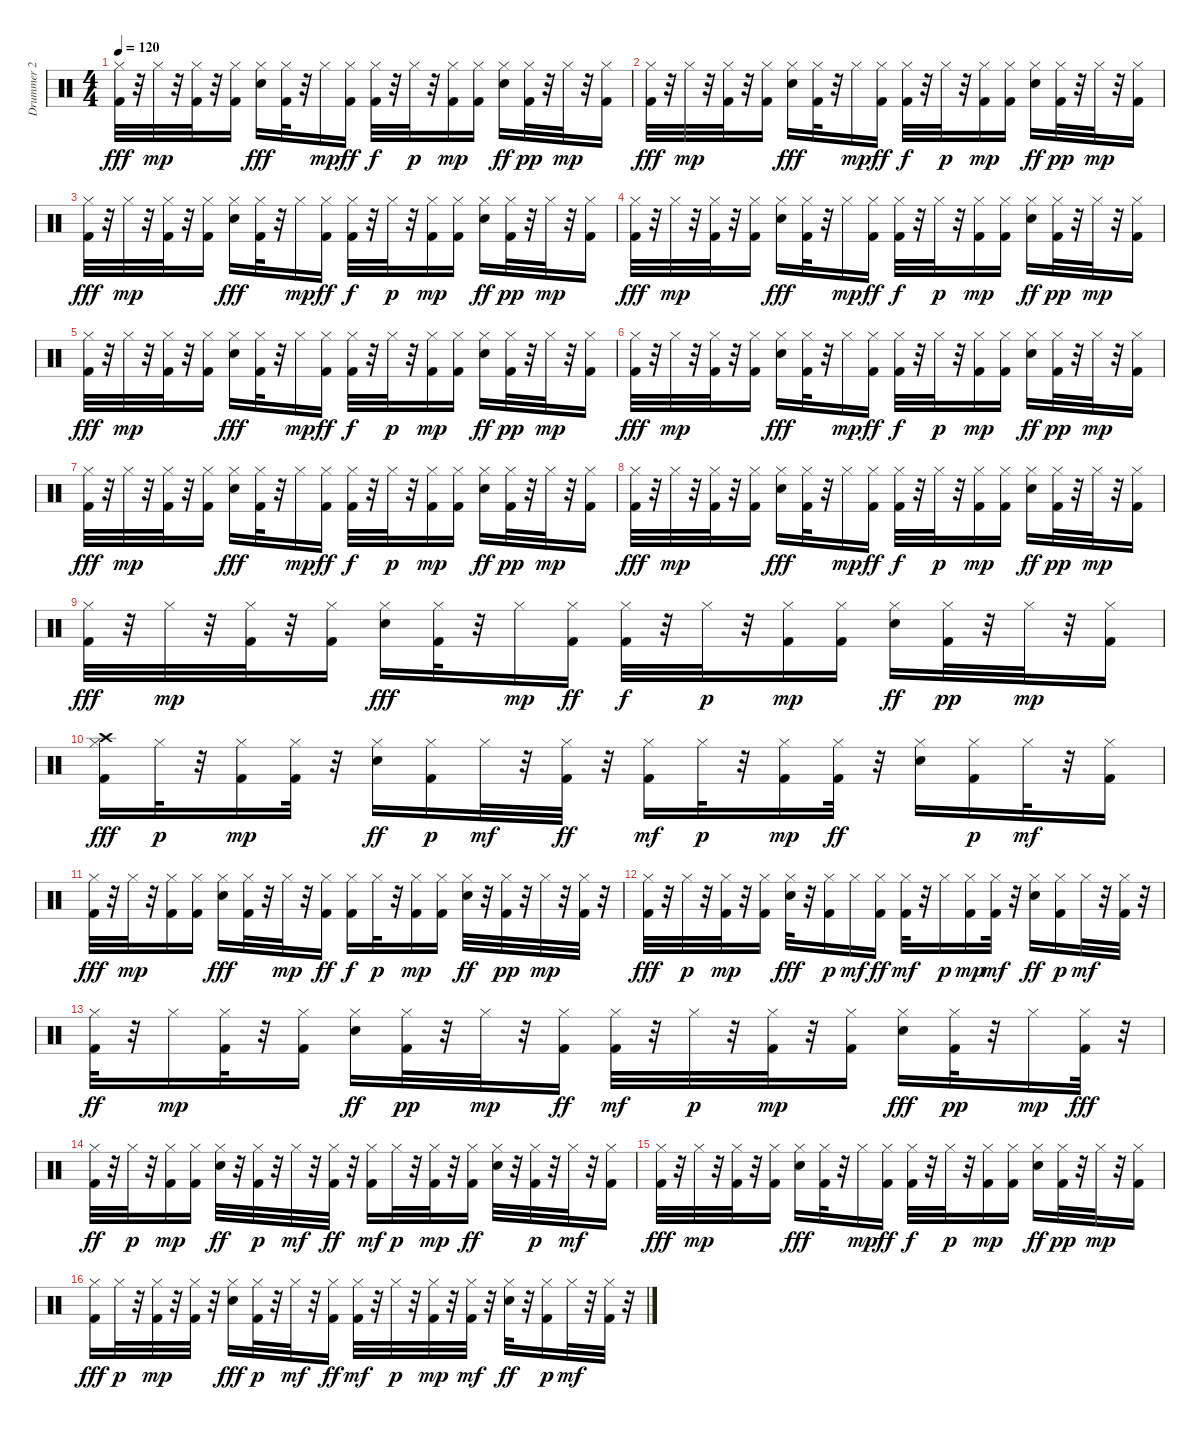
\track ("Drummer 2" "Drummer 2") {instrument percussion}
\staff {score}
\articulation defaults
\ts (4 4)
\tempo 120
\clef neutral
\ks c
("Hi-Hat (closed)" "Kick (hit) 2").32{dy fff} r.32 "Hi-Hat (closed)".32{dy mp} r.32 ("Kick (hit) 2" "Hi-Hat (closed)").32 r.32 ("Kick (hit) 2" "Hi-Hat (closed)").16 ("Hi-Hat (closed)" "Snare (hit) 2").16{dy fff} ("Hi-Hat (closed)" "Kick (hit) 2").32 r.32 "Hi-Hat (closed)".16{dy mp} ("Kick (hit) 2" "Hi-Hat (closed)").16{dy ff} ("Hi-Hat (closed)" "Kick (hit) 2").32{dy f} r.32 "Hi-Hat (closed)".32{dy p} r.32 ("Kick (hit) 2" "Hi-Hat (closed)").16{dy mp} ("Kick (hit) 2" "Hi-Hat (closed)").16 ("Hi-Hat (closed)" "Snare (hit) 2").16{dy ff} ("Kick (hit) 2" "Hi-Hat (closed)").32{dy pp} r.32 "Hi-Hat (closed)".32{dy mp} r.32 ("Kick (hit) 2" "Hi-Hat (closed)").16 |
("Hi-Hat (closed)" "Kick (hit) 2").32{dy fff} r.32 "Hi-Hat (closed)".32{dy mp} r.32 ("Kick (hit) 2" "Hi-Hat (closed)").32 r.32 ("Kick (hit) 2" "Hi-Hat (closed)").16 ("Hi-Hat (closed)" "Snare (hit) 2").16{dy fff} ("Hi-Hat (closed)" "Kick (hit) 2").32 r.32 "Hi-Hat (closed)".16{dy mp} ("Kick (hit) 2" "Hi-Hat (closed)").16{dy ff} ("Hi-Hat (closed)" "Kick (hit) 2").32{dy f} r.32 "Hi-Hat (closed)".32{dy p} r.32 ("Kick (hit) 2" "Hi-Hat (closed)").16{dy mp} ("Kick (hit) 2" "Hi-Hat (closed)").16 ("Hi-Hat (closed)" "Snare (hit) 2").16{dy ff} ("Kick (hit) 2" "Hi-Hat (closed)").32{dy pp} r.32 "Hi-Hat (closed)".32{dy mp} r.32 ("Kick (hit) 2" "Hi-Hat (closed)").16 |
("Hi-Hat (closed)" "Kick (hit) 2").32{dy fff} r.32 "Hi-Hat (closed)".32{dy mp} r.32 ("Kick (hit) 2" "Hi-Hat (closed)").32 r.32 ("Kick (hit) 2" "Hi-Hat (closed)").16 ("Hi-Hat (closed)" "Snare (hit) 2").16{dy fff} ("Hi-Hat (closed)" "Kick (hit) 2").32 r.32 "Hi-Hat (closed)".16{dy mp} ("Kick (hit) 2" "Hi-Hat (closed)").16{dy ff} ("Hi-Hat (closed)" "Kick (hit) 2").32{dy f} r.32 "Hi-Hat (closed)".32{dy p} r.32 ("Kick (hit) 2" "Hi-Hat (closed)").16{dy mp} ("Kick (hit) 2" "Hi-Hat (closed)").16 ("Hi-Hat (closed)" "Snare (hit) 2").16{dy ff} ("Kick (hit) 2" "Hi-Hat (closed)").32{dy pp} r.32 "Hi-Hat (closed)".32{dy mp} r.32 ("Kick (hit) 2" "Hi-Hat (closed)").16 |
("Hi-Hat (closed)" "Kick (hit) 2").32{dy fff} r.32 "Hi-Hat (closed)".32{dy mp} r.32 ("Kick (hit) 2" "Hi-Hat (closed)").32 r.32 ("Kick (hit) 2" "Hi-Hat (closed)").16 ("Hi-Hat (closed)" "Snare (hit) 2").16{dy fff} ("Hi-Hat (closed)" "Kick (hit) 2").32 r.32 "Hi-Hat (closed)".16{dy mp} ("Kick (hit) 2" "Hi-Hat (closed)").16{dy ff} ("Hi-Hat (closed)" "Kick (hit) 2").32{dy f} r.32 "Hi-Hat (closed)".32{dy p} r.32 ("Kick (hit) 2" "Hi-Hat (closed)").16{dy mp} ("Kick (hit) 2" "Hi-Hat (closed)").16 ("Hi-Hat (closed)" "Snare (hit) 2").16{dy ff} ("Kick (hit) 2" "Hi-Hat (closed)").32{dy pp} r.32 "Hi-Hat (closed)".32{dy mp} r.32 ("Kick (hit) 2" "Hi-Hat (closed)").16 |
("Hi-Hat (closed)" "Kick (hit) 2").32{dy fff} r.32 "Hi-Hat (closed)".32{dy mp} r.32 ("Kick (hit) 2" "Hi-Hat (closed)").32 r.32 ("Kick (hit) 2" "Hi-Hat (closed)").16 ("Hi-Hat (closed)" "Snare (hit) 2").16{dy fff} ("Hi-Hat (closed)" "Kick (hit) 2").32 r.32 "Hi-Hat (closed)".16{dy mp} ("Kick (hit) 2" "Hi-Hat (closed)").16{dy ff} ("Hi-Hat (closed)" "Kick (hit) 2").32{dy f} r.32 "Hi-Hat (closed)".32{dy p} r.32 ("Kick (hit) 2" "Hi-Hat (closed)").16{dy mp} ("Kick (hit) 2" "Hi-Hat (closed)").16 ("Hi-Hat (closed)" "Snare (hit) 2").16{dy ff} ("Kick (hit) 2" "Hi-Hat (closed)").32{dy pp} r.32 "Hi-Hat (closed)".32{dy mp} r.32 ("Kick (hit) 2" "Hi-Hat (closed)").16 |
("Hi-Hat (closed)" "Kick (hit) 2").32{dy fff} r.32 "Hi-Hat (closed)".32{dy mp} r.32 ("Kick (hit) 2" "Hi-Hat (closed)").32 r.32 ("Kick (hit) 2" "Hi-Hat (closed)").16 ("Hi-Hat (closed)" "Snare (hit) 2").16{dy fff} ("Hi-Hat (closed)" "Kick (hit) 2").32 r.32 "Hi-Hat (closed)".16{dy mp} ("Kick (hit) 2" "Hi-Hat (closed)").16{dy ff} ("Hi-Hat (closed)" "Kick (hit) 2").32{dy f} r.32 "Hi-Hat (closed)".32{dy p} r.32 ("Kick (hit) 2" "Hi-Hat (closed)").16{dy mp} ("Kick (hit) 2" "Hi-Hat (closed)").16 ("Hi-Hat (closed)" "Snare (hit) 2").16{dy ff} ("Kick (hit) 2" "Hi-Hat (closed)").32{dy pp} r.32 "Hi-Hat (closed)".32{dy mp} r.32 ("Kick (hit) 2" "Hi-Hat (closed)").16 |
("Hi-Hat (closed)" "Kick (hit) 2").32{dy fff} r.32 "Hi-Hat (closed)".32{dy mp} r.32 ("Kick (hit) 2" "Hi-Hat (closed)").32 r.32 ("Kick (hit) 2" "Hi-Hat (closed)").16 ("Hi-Hat (closed)" "Snare (hit) 2").16{dy fff} ("Hi-Hat (closed)" "Kick (hit) 2").32 r.32 "Hi-Hat (closed)".16{dy mp} ("Kick (hit) 2" "Hi-Hat (closed)").16{dy ff} ("Hi-Hat (closed)" "Kick (hit) 2").32{dy f} r.32 "Hi-Hat (closed)".32{dy p} r.32 ("Kick (hit) 2" "Hi-Hat (closed)").16{dy mp} ("Kick (hit) 2" "Hi-Hat (closed)").16 ("Hi-Hat (closed)" "Snare (hit) 2").16{dy ff} ("Kick (hit) 2" "Hi-Hat (closed)").32{dy pp} r.32 "Hi-Hat (closed)".32{dy mp} r.32 ("Kick (hit) 2" "Hi-Hat (closed)").16 |
("Hi-Hat (closed)" "Kick (hit) 2").32{dy fff} r.32 "Hi-Hat (closed)".32{dy mp} r.32 ("Kick (hit) 2" "Hi-Hat (closed)").32 r.32 ("Kick (hit) 2" "Hi-Hat (closed)").16 ("Hi-Hat (closed)" "Snare (hit) 2").16{dy fff} ("Hi-Hat (closed)" "Kick (hit) 2").32 r.32 "Hi-Hat (closed)".16{dy mp} ("Kick (hit) 2" "Hi-Hat (closed)").16{dy ff} ("Hi-Hat (closed)" "Kick (hit) 2").32{dy f} r.32 "Hi-Hat (closed)".32{dy p} r.32 ("Kick (hit) 2" "Hi-Hat (closed)").16{dy mp} ("Kick (hit) 2" "Hi-Hat (closed)").16 ("Hi-Hat (closed)" "Snare (hit) 2").16{dy ff} ("Kick (hit) 2" "Hi-Hat (closed)").32{dy pp} r.32 "Hi-Hat (closed)".32{dy mp} r.32 ("Kick (hit) 2" "Hi-Hat (closed)").16 |
("Hi-Hat (closed)" "Kick (hit) 2").32{dy fff} r.32 "Hi-Hat (closed)".32{dy mp} r.32 ("Kick (hit) 2" "Hi-Hat (closed)").32 r.32 ("Kick (hit) 2" "Hi-Hat (closed)").16 ("Hi-Hat (closed)" "Snare (hit) 2").16{dy fff} ("Hi-Hat (closed)" "Kick (hit) 2").32 r.32 "Hi-Hat (closed)".16{dy mp} ("Kick (hit) 2" "Hi-Hat (closed)").16{dy ff} ("Hi-Hat (closed)" "Kick (hit) 2").32{dy f} r.32 "Hi-Hat (closed)".32{dy p} r.32 ("Kick (hit) 2" "Hi-Hat (closed)").16{dy mp} ("Kick (hit) 2" "Hi-Hat (closed)").16 ("Hi-Hat (closed)" "Snare (hit) 2").16{dy ff} ("Kick (hit) 2" "Hi-Hat (closed)").32{dy pp} r.32 "Hi-Hat (closed)".32{dy mp} r.32 ("Kick (hit) 2" "Hi-Hat (closed)").16 |
("Kick (hit) 2" "Hi-Hat (closed)" "Crash high (hit)").16{dy fff} "Hi-Hat (closed)".32{dy p} r.32 ("Kick (hit) 2" "Hi-Hat (closed)").16{dy mp} ("Kick (hit) 2" "Hi-Hat (closed)").32 r.32 ("Hi-Hat (closed)" "Snare (hit) 2").16{dy ff} ("Kick (hit) 2" "Hi-Hat (closed)").16{dy p} "Hi-Hat (closed)".32{dy mf} r.32 ("Kick (hit) 2" "Hi-Hat (closed)").32{dy ff} r.32 ("Kick (hit) 2" "Hi-Hat (closed)").16{dy mf} "Hi-Hat (closed)".32{dy p} r.32 ("Kick (hit) 2" "Hi-Hat (closed)").16{dy mp} ("Kick (hit) 2" "Hi-Hat (closed)").32{dy ff} r.32 ("Hi-Hat (closed)" "Snare (hit) 2").16 ("Kick (hit) 2" "Hi-Hat (closed)").16{dy p} "Hi-Hat (closed)".32{dy mf} r.32 ("Kick (hit) 2" "Hi-Hat (closed)").16 |
("Hi-Hat (closed)" "Kick (hit) 2").32{dy fff} r.32 "Hi-Hat (closed)".32{dy mp} r.32 ("Kick (hit) 2" "Hi-Hat (closed)").16 ("Kick (hit) 2" "Hi-Hat (closed)").16 ("Hi-Hat (closed)" "Snare (hit) 2").16{dy fff} ("Hi-Hat (closed)" "Kick (hit) 2").32 r.32 "Hi-Hat (closed)".32{dy mp} r.32 ("Kick (hit) 2" "Hi-Hat (closed)").16{dy ff} ("Hi-Hat (closed)" "Kick (hit) 2").16{dy f} "Hi-Hat (closed)".32{dy p} r.32 ("Kick (hit) 2" "Hi-Hat (closed)").16{dy mp} ("Kick (hit) 2" "Hi-Hat (closed)").16 ("Hi-Hat (closed)" "Snare (hit) 2").32{dy ff} r.32 ("Kick (hit) 2" "Hi-Hat (closed)").32{dy pp} r.32 "Hi-Hat (closed)".32{dy mp} r.32 ("Kick (hit) 2" "Hi-Hat (closed)").32 r.32 |
("Hi-Hat (closed)" "Kick (hit) 2").32{dy fff} r.32 "Hi-Hat (closed)".32{dy p} r.32 ("Kick (hit) 2" "Hi-Hat (closed)").32{dy mp} r.32 ("Kick (hit) 2" "Hi-Hat (closed)").16 ("Hi-Hat (closed)" "Snare (hit) 2").32{dy fff} r.32 ("Kick (hit) 2" "Hi-Hat (closed)").16{dy p} "Hi-Hat (closed)".16{dy mf} ("Hi-Hat (closed)" "Kick (hit) 2").16{dy ff} ("Kick (hit) 2" "Hi-Hat (closed)").32{dy mf} r.32 "Hi-Hat (closed)".16{dy p} ("Kick (hit) 2" "Hi-Hat (closed)").16{dy mp} ("Hi-Hat (closed)" "Kick (hit) 2").32{dy mf} r.32 ("Hi-Hat (closed)" "Snare (hit) 2").16{dy ff} ("Kick (hit) 2" "Hi-Hat (closed)").16{dy p} "Hi-Hat (closed)".32{dy mf} r.32 ("Kick (hit) 2" "Hi-Hat (closed)").32 r.32 |
("Kick (hit) 2" "Hi-Hat (closed)").32{dy ff} r.32 "Hi-Hat (closed)".16{dy mp} ("Kick (hit) 2" "Hi-Hat (closed)").32 r.32 ("Kick (hit) 2" "Hi-Hat (closed)").16 ("Hi-Hat (closed)" "Snare (hit) 2").16{dy ff} ("Kick (hit) 2" "Hi-Hat (closed)").32{dy pp} r.32 "Hi-Hat (closed)".32{dy mp} r.32 ("Kick (hit) 2" "Hi-Hat (closed)").16{dy ff} ("Kick (hit) 2" "Hi-Hat (closed)").32{dy mf} r.32 "Hi-Hat (closed)".32{dy p} r.32 ("Kick (hit) 2" "Hi-Hat (closed)").32{dy mp} r.32 ("Kick (hit) 2" "Hi-Hat (closed)").16 ("Hi-Hat (closed)" "Snare (hit) 2").16{dy fff} ("Kick (hit) 2" "Hi-Hat (closed)").32{dy pp} r.32 "Hi-Hat (closed)".16{dy mp} ("Hi-Hat (closed)" "Kick (hit) 2").32{dy fff} r.32 |
("Kick (hit) 2" "Hi-Hat (closed)").32{dy ff} r.32 "Hi-Hat (closed)".32{dy p} r.32 ("Kick (hit) 2" "Hi-Hat (closed)").16{dy mp} ("Kick (hit) 2" "Hi-Hat (closed)").16 ("Hi-Hat (closed)" "Snare (hit) 2").32{dy ff} r.32 ("Kick (hit) 2" "Hi-Hat (closed)").32{dy p} r.32 "Hi-Hat (closed)".32{dy mf} r.32 ("Kick (hit) 2" "Hi-Hat (closed)").32{dy ff} r.32 ("Kick (hit) 2" "Hi-Hat (closed)").16{dy mf} "Hi-Hat (closed)".32{dy p} r.32 ("Kick (hit) 2" "Hi-Hat (closed)").32{dy mp} r.32 ("Kick (hit) 2" "Hi-Hat (closed)").16{dy ff} ("Hi-Hat (closed)" "Snare (hit) 2").32 r.32 ("Kick (hit) 2" "Hi-Hat (closed)").32{dy p} r.32 "Hi-Hat (closed)".32{dy mf} r.32 ("Kick (hit) 2" "Hi-Hat (closed)").16 |
("Hi-Hat (closed)" "Kick (hit) 2").32{dy fff} r.32 "Hi-Hat (closed)".32{dy mp} r.32 ("Kick (hit) 2" "Hi-Hat (closed)").32 r.32 ("Kick (hit) 2" "Hi-Hat (closed)").16 ("Hi-Hat (closed)" "Snare (hit) 2").16{dy fff} ("Hi-Hat (closed)" "Kick (hit) 2").32 r.32 "Hi-Hat (closed)".16{dy mp} ("Kick (hit) 2" "Hi-Hat (closed)").16{dy ff} ("Hi-Hat (closed)" "Kick (hit) 2").32{dy f} r.32 "Hi-Hat (closed)".32{dy p} r.32 ("Kick (hit) 2" "Hi-Hat (closed)").16{dy mp} ("Kick (hit) 2" "Hi-Hat (closed)").16 ("Hi-Hat (closed)" "Snare (hit) 2").16{dy ff} ("Kick (hit) 2" "Hi-Hat (closed)").32{dy pp} r.32 "Hi-Hat (closed)".32{dy mp} r.32 ("Kick (hit) 2" "Hi-Hat (closed)").16 |
("Hi-Hat (closed)" "Kick (hit) 2").16{dy fff} "Hi-Hat (closed)".32{dy p} r.32 ("Kick (hit) 2" "Hi-Hat (closed)").32{dy mp} r.32 ("Kick (hit) 2" "Hi-Hat (closed)").32 r.32 ("Hi-Hat (closed)" "Snare (hit) 2").16{dy fff} ("Kick (hit) 2" "Hi-Hat (closed)").32{dy p} r.32 "Hi-Hat (closed)".32{dy mf} r.32 ("Hi-Hat (closed)" "Kick (hit) 2").16{dy ff} ("Kick (hit) 2" "Hi-Hat (closed)").32{dy mf} r.32 "Hi-Hat (closed)".32{dy p} r.32 ("Kick (hit) 2" "Hi-Hat (closed)").32{dy mp} r.32 ("Hi-Hat (closed)" "Kick (hit) 2").32{dy mf} r.32 ("Hi-Hat (closed)" "Snare (hit) 2").32{dy ff} r.32 ("Kick (hit) 2" "Hi-Hat (closed)").16{dy p} "Hi-Hat (closed)".32{dy mf} r.32 ("Kick (hit) 2" "Hi-Hat (closed)").32 r.32
